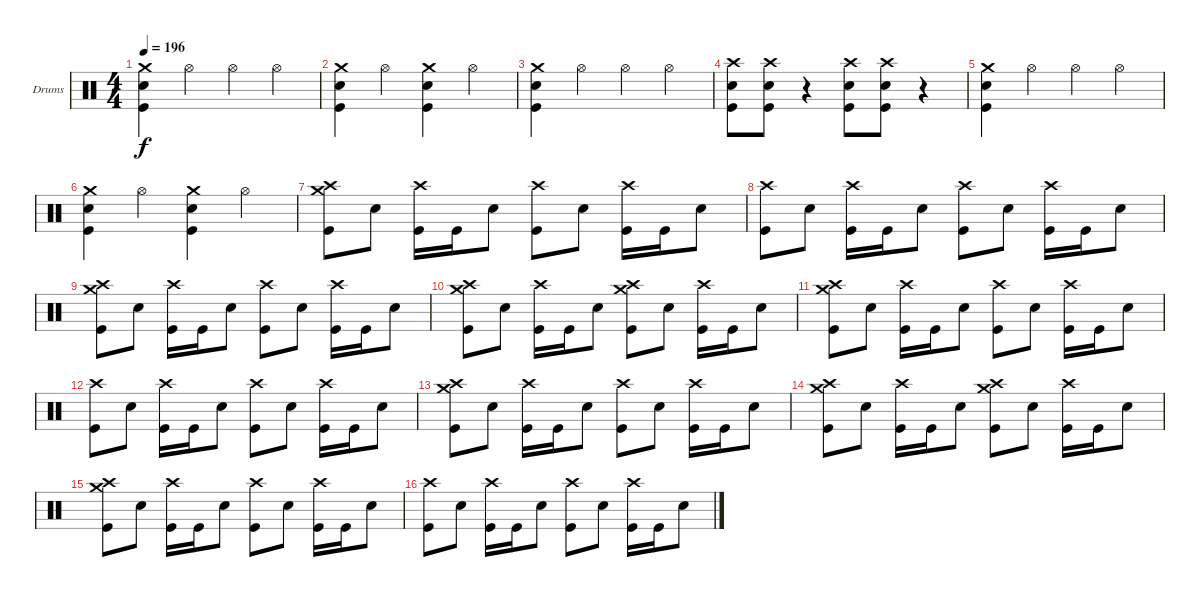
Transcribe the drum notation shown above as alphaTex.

\defaultSystemsLayout 4
\bracketExtendMode groupsimilarinstruments
\firstSystemTrackNameOrientation horizontal
\otherSystemsTrackNameOrientation horizontal
\track ("Lars Ulrich (Drum)" "Drums") {instrument percussion}
\staff {score}
\articulation defaults
\ts (4 4)
\tempo 196
\clef neutral
\scale
0.333333
\ks c
("Crash medium (hit)" "Snare (hit) 2" "Kick (hit)").4{dy f} "Hi-Hat (open)".4 "Hi-Hat (open)".4 "Hi-Hat (open)".4 |
\scale
0.333333 ("Crash medium (hit)" "Snare (hit) 2" "Kick (hit)").4 "Hi-Hat (open)".4 ("Crash medium (hit)" "Snare (hit) 2" "Kick (hit)").4 "Hi-Hat (open)".4 |
\scale
0.333333 ("Crash medium (hit)" "Snare (hit) 2" "Kick (hit)").4 "Hi-Hat (open)".4 "Hi-Hat (open)".4 "Hi-Hat (open)".4 |
\scale
0.333333 ("Crash high (hit)" "Snare (hit) 2" "Kick (hit)").8 ("Crash high (hit)" "Snare (hit) 2" "Kick (hit)").8 r.4 ("Crash high (hit)" "Snare (hit) 2" "Kick (hit)").8 ("Crash high (hit)" "Snare (hit) 2" "Kick (hit)").8 r.4 |
\scale
0.333333 ("Crash medium (hit)" "Snare (hit) 2" "Kick (hit)").4 "Hi-Hat (open)".4 "Hi-Hat (open)".4 "Hi-Hat (open)".4 |
\scale
0.333333 ("Crash medium (hit)" "Snare (hit) 2" "Kick (hit)").4 "Hi-Hat (open)".4 ("Crash medium (hit)" "Snare (hit) 2" "Kick (hit)").4 "Hi-Hat (open)".4 |
\scale
0.333333 ("Crash high (hit)" "Crash medium (hit)" "Kick (hit)").8 "Snare (hit) 2".8 ("Crash high (hit)" "Kick (hit)").16 "Kick (hit)".16 "Snare (hit) 2".8 ("Crash high (hit)" "Kick (hit)").8 "Snare (hit) 2".8 ("Crash high (hit)" "Kick (hit)").16 "Kick (hit)".16 "Snare (hit) 2".8 |
\scale
0.333333 ("Crash high (hit)" "Kick (hit)").8 "Snare (hit) 2".8 ("Crash high (hit)" "Kick (hit)").16 "Kick (hit)".16 "Snare (hit) 2".8 ("Crash high (hit)" "Kick (hit)").8 "Snare (hit) 2".8 ("Crash high (hit)" "Kick (hit)").16 "Kick (hit)".16 "Snare (hit) 2".8 |
\scale
0.333333 ("Crash high (hit)" "Crash medium (hit)" "Kick (hit)").8 "Snare (hit) 2".8 ("Crash high (hit)" "Kick (hit)").16 "Kick (hit)".16 "Snare (hit) 2".8 ("Crash high (hit)" "Kick (hit)").8 "Snare (hit) 2".8 ("Crash high (hit)" "Kick (hit)").16 "Kick (hit)".16 "Snare (hit) 2".8 |
\scale
0.333333 ("Crash high (hit)" "Crash medium (hit)" "Kick (hit)").8 "Snare (hit) 2".8 ("Crash high (hit)" "Kick (hit)").16 "Kick (hit)".16 "Snare (hit) 2".8 ("Crash high (hit)" "Crash medium (hit)" "Kick (hit)").8 "Snare (hit) 2".8 ("Crash high (hit)" "Kick (hit)").16 "Kick (hit)".16 "Snare (hit) 2".8 |
\scale
0.333333 ("Crash high (hit)" "Crash medium (hit)" "Kick (hit)").8 "Snare (hit) 2".8 ("Crash high (hit)" "Kick (hit)").16 "Kick (hit)".16 "Snare (hit) 2".8 ("Crash high (hit)" "Kick (hit)").8 "Snare (hit) 2".8 ("Crash high (hit)" "Kick (hit)").16 "Kick (hit)".16 "Snare (hit) 2".8 |
\scale
0.333333 ("Crash high (hit)" "Kick (hit)").8 "Snare (hit) 2".8 ("Crash high (hit)" "Kick (hit)").16 "Kick (hit)".16 "Snare (hit) 2".8 ("Crash high (hit)" "Kick (hit)").8 "Snare (hit) 2".8 ("Crash high (hit)" "Kick (hit)").16 "Kick (hit)".16 "Snare (hit) 2".8 |
\scale
0.333333 ("Crash high (hit)" "Crash medium (hit)" "Kick (hit)").8 "Snare (hit) 2".8 ("Crash high (hit)" "Kick (hit)").16 "Kick (hit)".16 "Snare (hit) 2".8 ("Crash high (hit)" "Kick (hit)").8 "Snare (hit) 2".8 ("Crash high (hit)" "Kick (hit)").16 "Kick (hit)".16 "Snare (hit) 2".8 |
\scale
0.333333 ("Crash high (hit)" "Crash medium (hit)" "Kick (hit)").8 "Snare (hit) 2".8 ("Crash high (hit)" "Kick (hit)").16 "Kick (hit)".16 "Snare (hit) 2".8 ("Crash high (hit)" "Crash medium (hit)" "Kick (hit)").8 "Snare (hit) 2".8 ("Crash high (hit)" "Kick (hit)").16 "Kick (hit)".16 "Snare (hit) 2".8 |
\scale
0.333333 ("Crash high (hit)" "Crash medium (hit)" "Kick (hit)").8 "Snare (hit) 2".8 ("Crash high (hit)" "Kick (hit)").16 "Kick (hit)".16 "Snare (hit) 2".8 ("Crash high (hit)" "Kick (hit)").8 "Snare (hit) 2".8 ("Crash high (hit)" "Kick (hit)").16 "Kick (hit)".16 "Snare (hit) 2".8 |
\scale
0.333333 ("Crash high (hit)" "Kick (hit)").8 "Snare (hit) 2".8 ("Crash high (hit)" "Kick (hit)").16 "Kick (hit)".16 "Snare (hit) 2".8 ("Crash high (hit)" "Kick (hit)").8 "Snare (hit) 2".8 ("Crash high (hit)" "Kick (hit)").16 "Kick (hit)".16 "Snare (hit) 2".8
